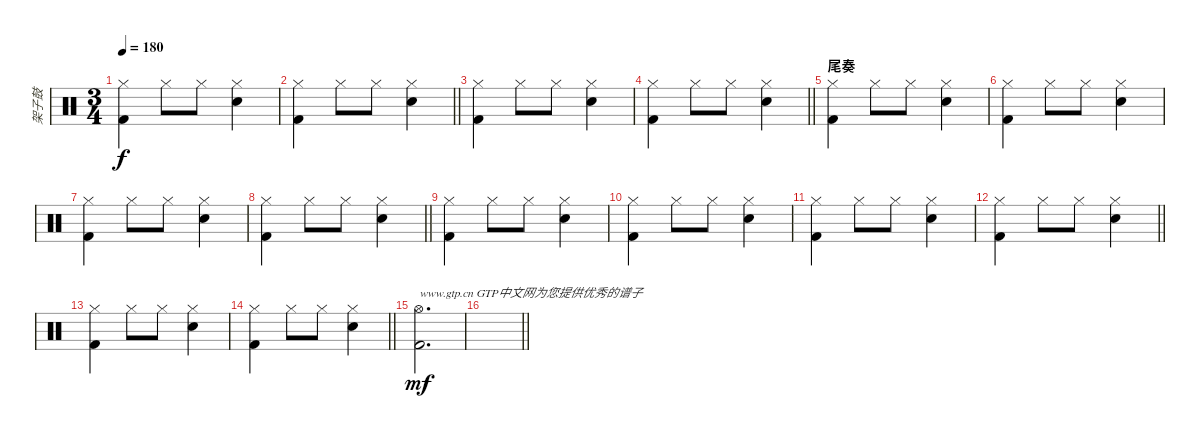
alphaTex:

\track ("架子鼓" "架子鼓") {instrument percussion}
\staff {score}
\articulation defaults
\ts (3 4)
\tempo 180
\clef neutral
\ks c
("Hi-Hat (closed)" "Kick (hit) 2").4{dy f} "Hi-Hat (closed)".8 "Hi-Hat (closed)".8 ("Hi-Hat (closed)" "Electric Snare (hit)").4 |
\barLineRight lightlight
("Hi-Hat (closed)" "Kick (hit) 2").4 "Hi-Hat (closed)".8 "Hi-Hat (closed)".8 ("Hi-Hat (closed)" "Electric Snare (hit)").4 |
("Hi-Hat (closed)" "Kick (hit) 2").4 "Hi-Hat (closed)".8 "Hi-Hat (closed)".8 ("Hi-Hat (closed)" "Electric Snare (hit)").4 |
\barLineRight lightlight
("Hi-Hat (closed)" "Kick (hit) 2").4 "Hi-Hat (closed)".8 "Hi-Hat (closed)".8 ("Hi-Hat (closed)" "Electric Snare (hit)").4 |
\section ("" "尾奏")
("Hi-Hat (closed)" "Kick (hit) 2").4 "Hi-Hat (closed)".8 "Hi-Hat (closed)".8 ("Hi-Hat (closed)" "Electric Snare (hit)").4 |
("Hi-Hat (closed)" "Kick (hit) 2").4 "Hi-Hat (closed)".8 "Hi-Hat (closed)".8 ("Hi-Hat (closed)" "Electric Snare (hit)").4 |
("Hi-Hat (closed)" "Kick (hit) 2").4 "Hi-Hat (closed)".8 "Hi-Hat (closed)".8 ("Hi-Hat (closed)" "Electric Snare (hit)").4 |
\barLineRight lightlight
("Hi-Hat (closed)" "Kick (hit) 2").4 "Hi-Hat (closed)".8 "Hi-Hat (closed)".8 ("Hi-Hat (closed)" "Electric Snare (hit)").4 |
("Hi-Hat (closed)" "Kick (hit) 2").4 "Hi-Hat (closed)".8 "Hi-Hat (closed)".8 ("Hi-Hat (closed)" "Electric Snare (hit)").4 |
("Hi-Hat (closed)" "Kick (hit) 2").4 "Hi-Hat (closed)".8 "Hi-Hat (closed)".8 ("Hi-Hat (closed)" "Electric Snare (hit)").4 |
("Hi-Hat (closed)" "Kick (hit) 2").4 "Hi-Hat (closed)".8 "Hi-Hat (closed)".8 ("Hi-Hat (closed)" "Electric Snare (hit)").4 |
\barLineRight lightlight
("Hi-Hat (closed)" "Kick (hit) 2").4 "Hi-Hat (closed)".8 "Hi-Hat (closed)".8 ("Hi-Hat (closed)" "Electric Snare (hit)").4 |
("Hi-Hat (closed)" "Kick (hit) 2").4 "Hi-Hat (closed)".8 "Hi-Hat (closed)".8 ("Hi-Hat (closed)" "Electric Snare (hit)").4 |
\barLineRight lightlight
("Hi-Hat (closed)" "Kick (hit) 2").4 "Hi-Hat (closed)".8 "Hi-Hat (closed)".8 ("Hi-Hat (closed)" "Electric Snare (hit)").4 |
("Hi-Hat (open)" "Kick (hit) 2").2{d txt "www.gtp.cn GTP中文网为您提供优秀的谱子" dy mf} |
\barLineRight lightlight
